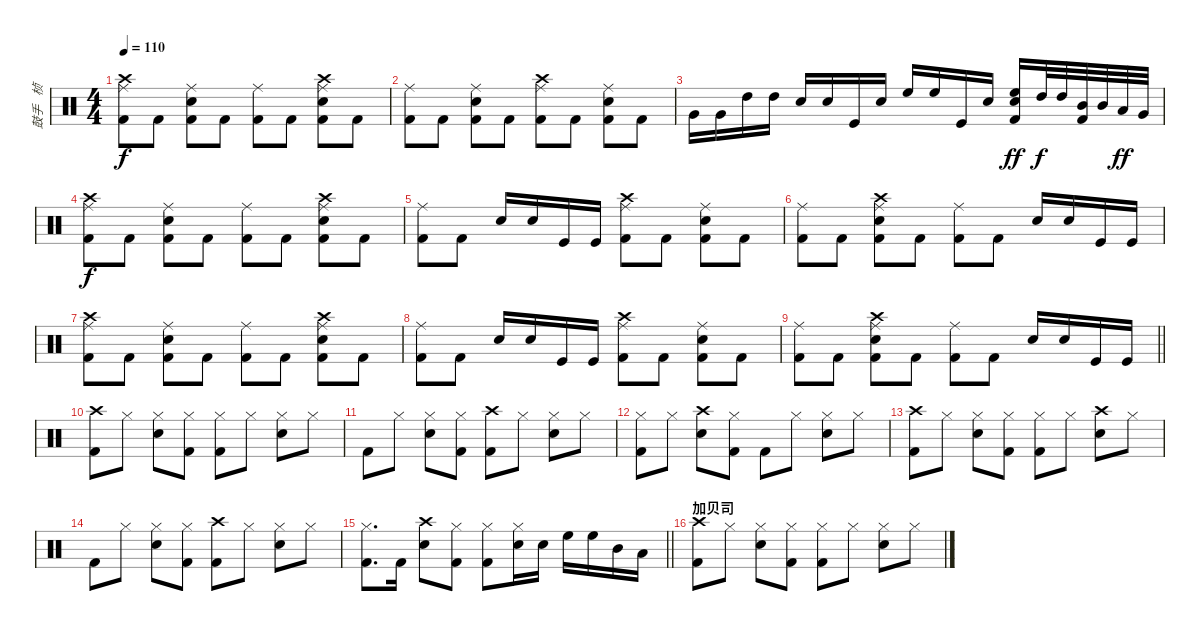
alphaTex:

\track ("鼓手   桢" "鼓手   桢") {instrument percussion bank 1}
\staff {score}
\articulation defaults
\ts (4 4)
\tempo 110
\clef neutral
\ks c
("Ride (middle)" "Kick (hit) 2" "Crash high (hit)").8{dy f} "Kick (hit) 2".8 ("Ride (middle)" "Snare (hit) 2" "Kick (hit) 2").8 "Kick (hit) 2".8 ("Ride (middle)" "Kick (hit) 2").8 "Kick (hit) 2".8 ("Ride (middle)" "Snare (hit) 2" "Kick (hit) 2" "Crash high (hit)").8 "Kick (hit) 2".8 |
("Ride (middle)" "Kick (hit) 2").8 "Kick (hit) 2".8 ("Ride (middle)" "Snare (hit) 2" "Kick (hit) 2").8 "Kick (hit) 2".8 ("Ride (middle)" "Kick (hit) 2" "Crash high (hit)").8 "Kick (hit) 2".8 ("Ride (middle)" "Snare (hit) 2" "Kick (hit) 2").8 "Kick (hit) 2".8 |
"Very Low Tom (hit)".16 "Very Low Tom (hit)".16 "High Tom (hit)".16 "High Tom (hit)".16 "Snare (hit) 2".16 "Snare (hit) 2".16 "Kick (hit)".16 "Snare (hit) 2".16 "High Floor Tom (hit)".16 "High Floor Tom (hit)".16 "Kick (hit)".16 "Snare (hit) 2".16 ("Electric Snare (hit)" "High Floor Tom (hit)" "Kick (hit) 2").16{dy ff} "High Tom (hit)".32{dy f} "High Tom (hit)".32 ("Mid Tom (hit)" "Kick (hit) 2").32 "Mid Tom (hit)".32 "Low Tom (hit)".32{dy ff} "Very Low Tom (hit)".32 |
("Ride (middle)" "Kick (hit) 2" "Crash high (hit)").8{dy f} "Kick (hit) 2".8 ("Ride (middle)" "Snare (hit) 2" "Kick (hit) 2").8 "Kick (hit) 2".8 ("Ride (middle)" "Kick (hit) 2").8 "Kick (hit) 2".8 ("Ride (middle)" "Snare (hit) 2" "Kick (hit) 2" "Crash high (hit)").8 "Kick (hit) 2".8 |
("Ride (middle)" "Kick (hit) 2").8 "Kick (hit) 2".8 "Snare (hit) 2".16 "Snare (hit) 2".16 "Kick (hit)".16 "Kick (hit)".16 ("Ride (middle)" "Kick (hit) 2" "Crash high (hit)").8 "Kick (hit) 2".8 ("Ride (middle)" "Snare (hit) 2" "Kick (hit) 2").8 "Kick (hit) 2".8 |
("Ride (middle)" "Kick (hit) 2").8 "Kick (hit) 2".8 ("Ride (middle)" "Snare (hit) 2" "Kick (hit) 2" "Crash high (hit)").8 "Kick (hit) 2".8 ("Ride (middle)" "Kick (hit) 2").8 "Kick (hit) 2".8 "Snare (hit) 2".16 "Snare (hit) 2".16 "Kick (hit)".16 "Kick (hit)".16 |
("Ride (middle)" "Kick (hit) 2" "Crash high (hit)").8 "Kick (hit) 2".8 ("Ride (middle)" "Snare (hit) 2" "Kick (hit) 2").8 "Kick (hit) 2".8 ("Ride (middle)" "Kick (hit) 2").8 "Kick (hit) 2".8 ("Ride (middle)" "Snare (hit) 2" "Kick (hit) 2" "Crash high (hit)").8 "Kick (hit) 2".8 |
("Ride (middle)" "Kick (hit) 2").8 "Kick (hit) 2".8 "Snare (hit) 2".16 "Snare (hit) 2".16 "Kick (hit)".16 "Kick (hit)".16 ("Ride (middle)" "Kick (hit) 2" "Crash high (hit)").8 "Kick (hit) 2".8 ("Ride (middle)" "Snare (hit) 2" "Kick (hit) 2").8 "Kick (hit) 2".8 |
\barLineRight lightlight
("Ride (middle)" "Kick (hit) 2").8 "Kick (hit) 2".8 ("Ride (middle)" "Snare (hit) 2" "Kick (hit) 2" "Crash high (hit)").8 "Kick (hit) 2".8 ("Ride (middle)" "Kick (hit) 2").8 "Kick (hit) 2".8 "Snare (hit) 2".16 "Snare (hit) 2".16 "Kick (hit)".16 "Kick (hit)".16 |
("Crash high (hit)" "Kick (hit) 2").8 "Hi-Hat (closed)".8 ("Hi-Hat (closed)" "Snare (hit) 2").8 ("Hi-Hat (closed)" "Kick (hit) 2").8 ("Hi-Hat (closed)" "Kick (hit) 2").8 "Hi-Hat (closed)".8 ("Hi-Hat (closed)" "Snare (hit) 2").8 "Hi-Hat (closed)".8 |
"Kick (hit) 2".8 "Hi-Hat (closed)".8 ("Hi-Hat (closed)" "Snare (hit) 2").8 ("Hi-Hat (closed)" "Kick (hit) 2").8 ("Crash high (hit)" "Kick (hit) 2").8 "Hi-Hat (closed)".8 ("Hi-Hat (closed)" "Snare (hit) 2").8 "Hi-Hat (closed)".8 |
("Hi-Hat (closed)" "Kick (hit) 2").8 "Hi-Hat (closed)".8 ("Crash high (hit)" "Snare (hit) 2").8 ("Hi-Hat (closed)" "Kick (hit) 2").8 "Kick (hit) 2".8 "Hi-Hat (closed)".8 ("Hi-Hat (closed)" "Snare (hit) 2").8 "Hi-Hat (closed)".8 |
("Crash high (hit)" "Kick (hit) 2").8 "Hi-Hat (closed)".8 ("Hi-Hat (closed)" "Snare (hit) 2").8 ("Hi-Hat (closed)" "Kick (hit) 2").8 ("Hi-Hat (closed)" "Kick (hit) 2").8 "Hi-Hat (closed)".8 ("Crash high (hit)" "Snare (hit) 2").8 "Hi-Hat (closed)".8 |
"Kick (hit) 2".8 "Hi-Hat (closed)".8 ("Hi-Hat (closed)" "Snare (hit) 2").8 ("Hi-Hat (closed)" "Kick (hit) 2").8 ("Crash high (hit)" "Kick (hit) 2").8 "Hi-Hat (closed)".8 ("Hi-Hat (closed)" "Snare (hit) 2").8 "Hi-Hat (closed)".8 |
\barLineRight lightlight
("Hi-Hat (closed)" "Kick (hit) 2").8{d} "Kick (hit) 2".16 ("Crash high (hit)" "Snare (hit) 2").8 ("Hi-Hat (closed)" "Kick (hit) 2").8 ("Hi-Hat (closed)" "Kick (hit) 2").8 ("Hi-Hat (closed)" "Snare (hit) 2").16 "Snare (hit) 2".16 "High Floor Tom (hit)".16 "High Floor Tom (hit)".16 "Mid Tom (hit)".16 "Low Tom (hit)".16 |
\section ("" "加贝司")
("Crash high (hit)" "Kick (hit) 2").8 "Hi-Hat (closed)".8 ("Hi-Hat (closed)" "Snare (hit) 2").8 ("Hi-Hat (closed)" "Kick (hit) 2").8 ("Hi-Hat (closed)" "Kick (hit) 2").8 "Hi-Hat (closed)".8 ("Hi-Hat (closed)" "Snare (hit) 2").8 "Hi-Hat (closed)".8
